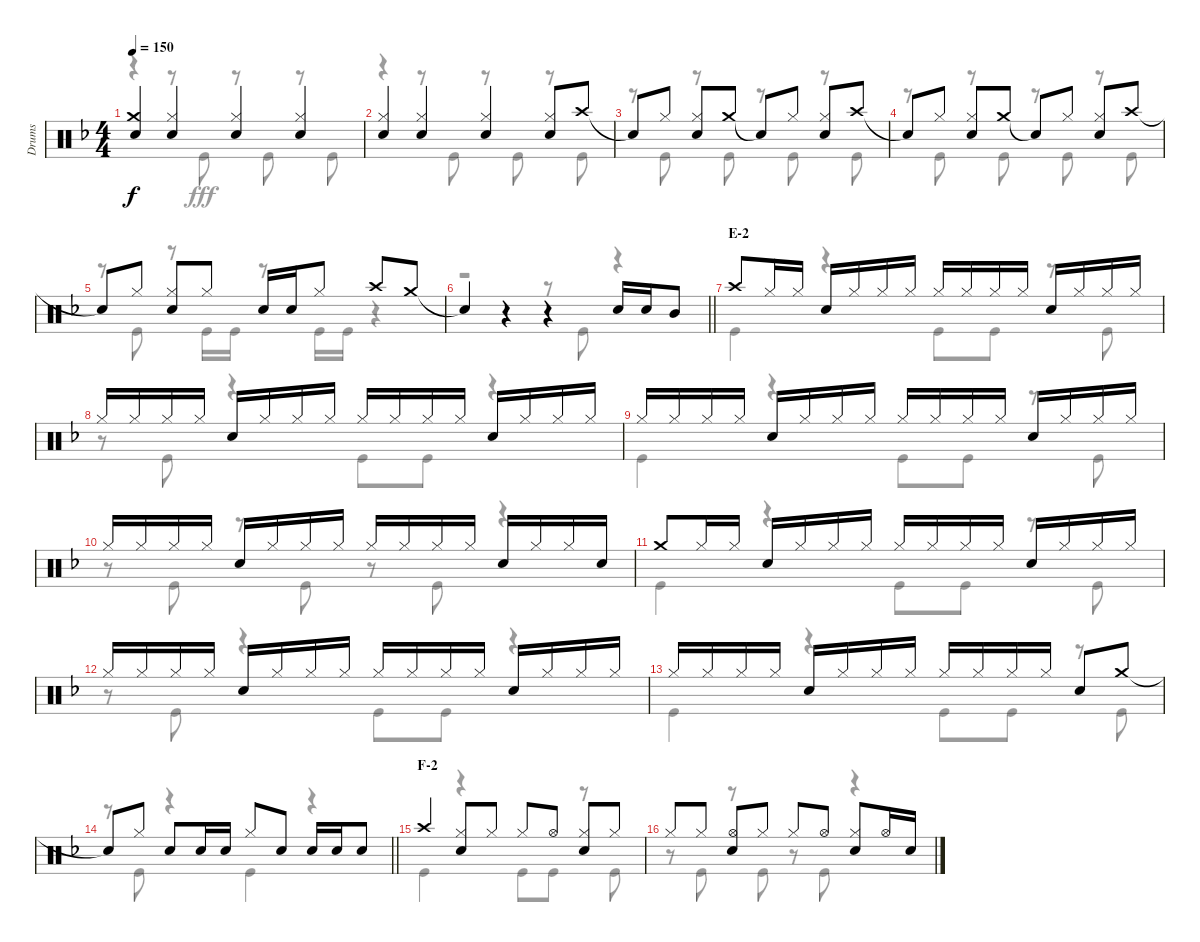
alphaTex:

\track ("Drums" "Drums") {instrument percussion}
\staff {score}
\articulation defaults
\voice
\ts (4 4)
\tempo 150
\clef neutral
\ks f
("Crash medium (hit)" "Snare (hit) 2").4{dy f} ("Hi-Hat (closed)" "Snare (hit) 2").4 ("Hi-Hat (closed)" "Snare (hit) 2").4 ("Hi-Hat (closed)" "Snare (hit) 2").4 |
("Hi-Hat (closed)" "Snare (hit) 2").4 ("Hi-Hat (closed)" "Snare (hit) 2").4 ("Hi-Hat (closed)" "Snare (hit) 2").4 ("Hi-Hat (closed)" "Snare (hit) 2").8 "Crash high (hit)".8 |
"Snare (hit)"{t}.8 "Hi-Hat (closed)".8 ("Hi-Hat (closed)" "Snare (hit) 2").8 "Crash medium (hit)".8 "Snare (hit)"{t}.8 "Hi-Hat (closed)".8 ("Hi-Hat (closed)" "Snare (hit) 2").8 "Crash high (hit)".8 |
"Snare (hit)"{t}.8 "Hi-Hat (closed)".8 ("Hi-Hat (closed)" "Snare (hit) 2").8 "Crash medium (hit)".8 "Snare (hit)"{t}.8 "Hi-Hat (closed)".8 ("Hi-Hat (closed)" "Snare (hit) 2").8 "Crash high (hit)".8 |
"Snare (hit)"{t}.8 "Hi-Hat (closed)".8 ("Hi-Hat (closed)" "Snare (hit) 2").8 "Hi-Hat (closed)".8 "Snare (hit) 2".16 "Snare (hit) 2".16 "Hi-Hat (closed)".8 "Crash high (hit)".8 "Crash medium (hit)".8 |
\barLineRight lightlight "Snare (hit)"{t}.4
r.4 r.4 "Snare (hit) 2".16 "Snare (hit) 2".16 "Mid Tom (hit)".8 |
\section ("" "E-2")
"Crash high (hit)".8 "Hi-Hat (closed)".16 "Hi-Hat (closed)".16 "Snare (hit) 2".16 "Hi-Hat (closed)".16 "Hi-Hat (closed)".16 "Hi-Hat (closed)".16 "Hi-Hat (closed)".16 "Hi-Hat (closed)".16 "Hi-Hat (closed)".16 "Hi-Hat (closed)".16 "Snare (hit) 2".16 "Hi-Hat (closed)".16 "Hi-Hat (closed)".16 "Hi-Hat (closed)".16 |
"Hi-Hat (closed)".16 "Hi-Hat (closed)".16 "Hi-Hat (closed)".16 "Hi-Hat (closed)".16 "Snare (hit) 2".16 "Hi-Hat (closed)".16 "Hi-Hat (closed)".16 "Hi-Hat (closed)".16 "Hi-Hat (closed)".16 "Hi-Hat (closed)".16 "Hi-Hat (closed)".16 "Hi-Hat (closed)".16 "Snare (hit) 2".16 "Hi-Hat (closed)".16 "Hi-Hat (closed)".16 "Hi-Hat (closed)".16 |
"Hi-Hat (closed)".16 "Hi-Hat (closed)".16 "Hi-Hat (closed)".16 "Hi-Hat (closed)".16 "Snare (hit) 2".16 "Hi-Hat (closed)".16 "Hi-Hat (closed)".16 "Hi-Hat (closed)".16 "Hi-Hat (closed)".16 "Hi-Hat (closed)".16 "Hi-Hat (closed)".16 "Hi-Hat (closed)".16 "Snare (hit) 2".16 "Hi-Hat (closed)".16 "Hi-Hat (closed)".16 "Hi-Hat (closed)".16 |
"Hi-Hat (closed)".16 "Hi-Hat (closed)".16 "Hi-Hat (closed)".16 "Hi-Hat (closed)".16 "Snare (hit) 2".16 "Hi-Hat (closed)".16 "Hi-Hat (closed)".16 "Hi-Hat (closed)".16 "Hi-Hat (closed)".16 "Hi-Hat (closed)".16 "Hi-Hat (closed)".16 "Hi-Hat (closed)".16 "Snare (hit) 2".16 "Hi-Hat (closed)".16 "Hi-Hat (closed)".16 "Snare (hit) 2".16 |
"Crash medium (hit)".8 "Hi-Hat (closed)".16 "Hi-Hat (closed)".16 "Snare (hit) 2".16 "Hi-Hat (closed)".16 "Hi-Hat (closed)".16 "Hi-Hat (closed)".16 "Hi-Hat (closed)".16 "Hi-Hat (closed)".16 "Hi-Hat (closed)".16 "Hi-Hat (closed)".16 "Snare (hit) 2".16 "Hi-Hat (closed)".16 "Hi-Hat (closed)".16 "Hi-Hat (closed)".16 |
"Hi-Hat (closed)".16 "Hi-Hat (closed)".16 "Hi-Hat (closed)".16 "Hi-Hat (closed)".16 "Snare (hit) 2".16 "Hi-Hat (closed)".16 "Hi-Hat (closed)".16 "Hi-Hat (closed)".16 "Hi-Hat (closed)".16 "Hi-Hat (closed)".16 "Hi-Hat (closed)".16 "Hi-Hat (closed)".16 "Snare (hit) 2".16 "Hi-Hat (closed)".16 "Hi-Hat (closed)".16 "Hi-Hat (closed)".16 |
"Hi-Hat (closed)".16 "Hi-Hat (closed)".16 "Hi-Hat (closed)".16 "Hi-Hat (closed)".16 "Snare (hit) 2".16 "Hi-Hat (closed)".16 "Hi-Hat (closed)".16 "Hi-Hat (closed)".16 "Hi-Hat (closed)".16 "Hi-Hat (closed)".16 "Hi-Hat (closed)".16 "Hi-Hat (closed)".16 "Snare (hit) 2".8 "Crash medium (hit)".8 |
\barLineRight lightlight "Snare (hit)"{t}.8 "Hi-Hat (closed)".8 "Snare (hit) 2".8 "Snare (hit) 2".16 "Snare (hit) 2".16 "Hi-Hat (closed)".8 "Snare (hit) 2".8 "Snare (hit) 2".16 "Snare (hit) 2".16 "Snare (hit) 2".8
|
\section ("" "F-2")
"Crash high (hit)".4 ("Hi-Hat (closed)" "Snare (hit) 2").8 "Hi-Hat (closed)".8 "Hi-Hat (closed)".8 "Hi-Hat (open)".8 ("Hi-Hat (closed)" "Snare (hit) 2").8 "Hi-Hat (closed)".8 |
"Hi-Hat (closed)".8 "Hi-Hat (closed)".8 ("Hi-Hat (open)" "Snare (hit) 2").8 "Hi-Hat (closed)".8 "Hi-Hat (closed)".8 "Hi-Hat (open)".8 ("Hi-Hat (closed)" "Snare (hit) 2").8 "Hi-Hat (open)".16 "Snare (hit) 2".16
\voice
\clef neutral
\ottava regular
\simile none
\ks f
r.4{dy fff} r.8 "Kick (hit)".8 r.8 "Kick (hit)".8 r.8 "Kick (hit)".8 |
r.4 r.8 "Kick (hit)".8 r.8 "Kick (hit)".8 r.8 "Kick (hit)".8 |
r.8 "Kick (hit)".8 r.8 "Kick (hit)".8 r.8 "Kick (hit)".8 r.8 "Kick (hit)".8 |
r.8 "Kick (hit)".8 r.8 "Kick (hit)".8 r.8 "Kick (hit)".8 r.8 "Kick (hit)".8 |
r.8 "Kick (hit)".8 r.8 "Kick (hit)".16 "Kick (hit)".16 r.8 "Kick (hit)".16 "Kick (hit)".16 r.4 |
\barLineRight lightlight
r.2 r.8 "Kick (hit)".8 r.4 |
"Kick (hit)".4 r.4 "Kick (hit)".8 "Kick (hit)".8 r.8 "Kick (hit)".8 |
r.8 "Kick (hit)".8 r.4 "Kick (hit)".8 "Kick (hit)".8 r.4 |
"Kick (hit)".4 r.4 "Kick (hit)".8 "Kick (hit)".8 r.8 "Kick (hit)".8 |
r.8 "Kick (hit)".8 r.8 "Kick (hit)".8 r.8 "Kick (hit)".8 r.4 |
"Kick (hit)".4 r.4 "Kick (hit)".8 "Kick (hit)".8 r.8 "Kick (hit)".8 |
r.8 "Kick (hit)".8 r.4 "Kick (hit)".8 "Kick (hit)".8 r.4 |
"Kick (hit)".4 r.4 "Kick (hit)".8 "Kick (hit)".8 r.8 "Kick (hit)".8 |
\barLineRight lightlight
r.8 "Kick (hit)".8 r.4 "Kick (hit)".4 r.4 |
"Kick (hit)".4 r.4 "Kick (hit)".8 "Kick (hit)".8 r.8 "Kick (hit)".8 |
r.8 "Kick (hit)".8 r.8 "Kick (hit)".8 r.8 "Kick (hit)".8 r.4
